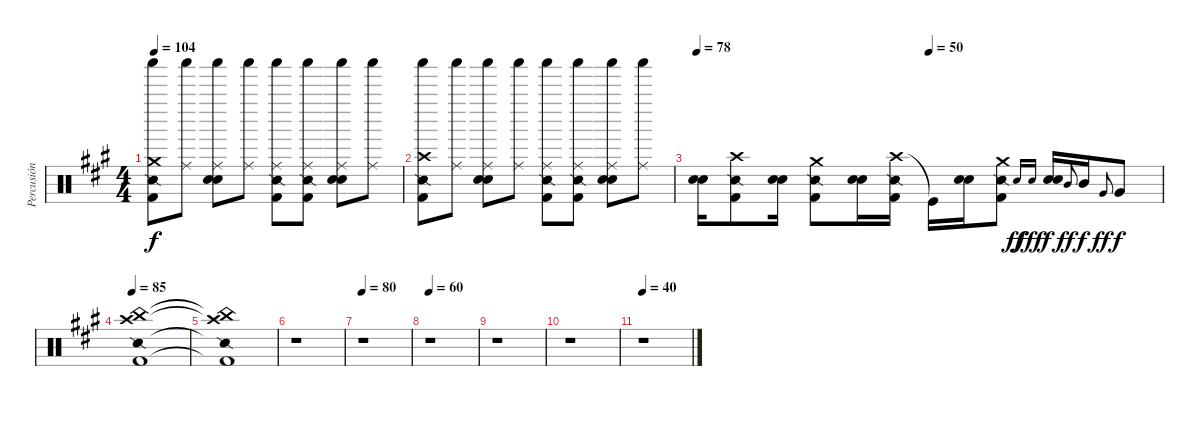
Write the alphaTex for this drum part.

\track ("Percusión" "Percusión") {instrument percussion}
\staff {score}
\articulation defaults
\ts (4 4)
\tempo 104
\clef neutral
\ks a
("Crash medium (hit)" "Kick (hit) 2" "Snare (side stick) 2" "Shaker (hit)").8{dy f} ("Ride (middle)" "Shaker (hit)").8 ("Ride (middle)" "Snare (hit) 2" "Electric Snare (hit)" "Shaker (hit)").8 ("Ride (middle)" "Shaker (hit)").8 ("Ride (middle)" "Kick (hit) 2" "Snare (side stick) 2" "Shaker (hit)").8 ("Ride (middle)" "Kick (hit) 2" "Snare (side stick) 2" "Shaker (hit)").8 ("Ride (middle)" "Snare (hit) 2" "Electric Snare (hit)" "Shaker (hit)").8 ("Ride (middle)" "Shaker (hit)").8 |
("Crash high (hit)" "Kick (hit) 2" "Snare (side stick) 2" "Shaker (hit)").8 ("Ride (middle)" "Shaker (hit)").8 ("Ride (middle)" "Snare (hit) 2" "Electric Snare (hit)" "Shaker (hit)").8 ("Ride (middle)" "Shaker (hit)").8 ("Ride (middle)" "Kick (hit) 2" "Snare (side stick) 2" "Shaker (hit)").8 ("Ride (middle)" "Kick (hit) 2" "Snare (side stick) 2" "Shaker (hit)").8 ("Ride (middle)" "Snare (hit) 2" "Electric Snare (hit)" "Shaker (hit)").8 ("Ride (middle)" "Shaker (hit)").8 |
\tempo 78
\tempo (50 0.5)
("Snare (hit) 2" "Electric Snare (hit)").16 ("Crash high (hit)" "Kick (hit) 2" "Snare (side stick) 2").8 ("Snare (hit) 2" "Electric Snare (hit)").16 ("Crash medium (hit)" "Kick (hit) 2" "Snare (side stick) 2").8 ("Snare (hit) 2" "Electric Snare (hit)").16 ("Crash high (hit)" "Kick (hit) 2" "Snare (side stick) 2").16 "Kick (hit)"{t}.16 ("Snare (hit) 2" "Electric Snare (hit)").16 ("Crash medium (hit)" "Kick (hit) 2" "Snare (side stick) 2").8 "Snare (hit) 2".16{gr onbeat dy ff} "Electric Snare (hit)".16{gr onbeat dy fff} ("Snare (hit) 2" "Electric Snare (hit)").16{dy f} "Mid Tom (hit)".8{gr onbeat dy ff} "Mid Tom (hit)".16{dy f} "Very Low Tom (hit)".8{gr onbeat dy ff} "Very Low Tom (hit)".8{dy f} |
\tempo 85
("China (hit)" "Crash high (hit)" "Kick (hit) 2" "Snare (side stick) 2").1 |
("China (hit)"{t} "Crash high (hit)"{t} "Kick (hit) 2"{t} "Snare (side stick) 2"{t}).1 |
r.1 |
\tempo 80
r.1 |
\tempo 60
r.1 |
r.1 |
r.1 |
\tempo 40
r.1
